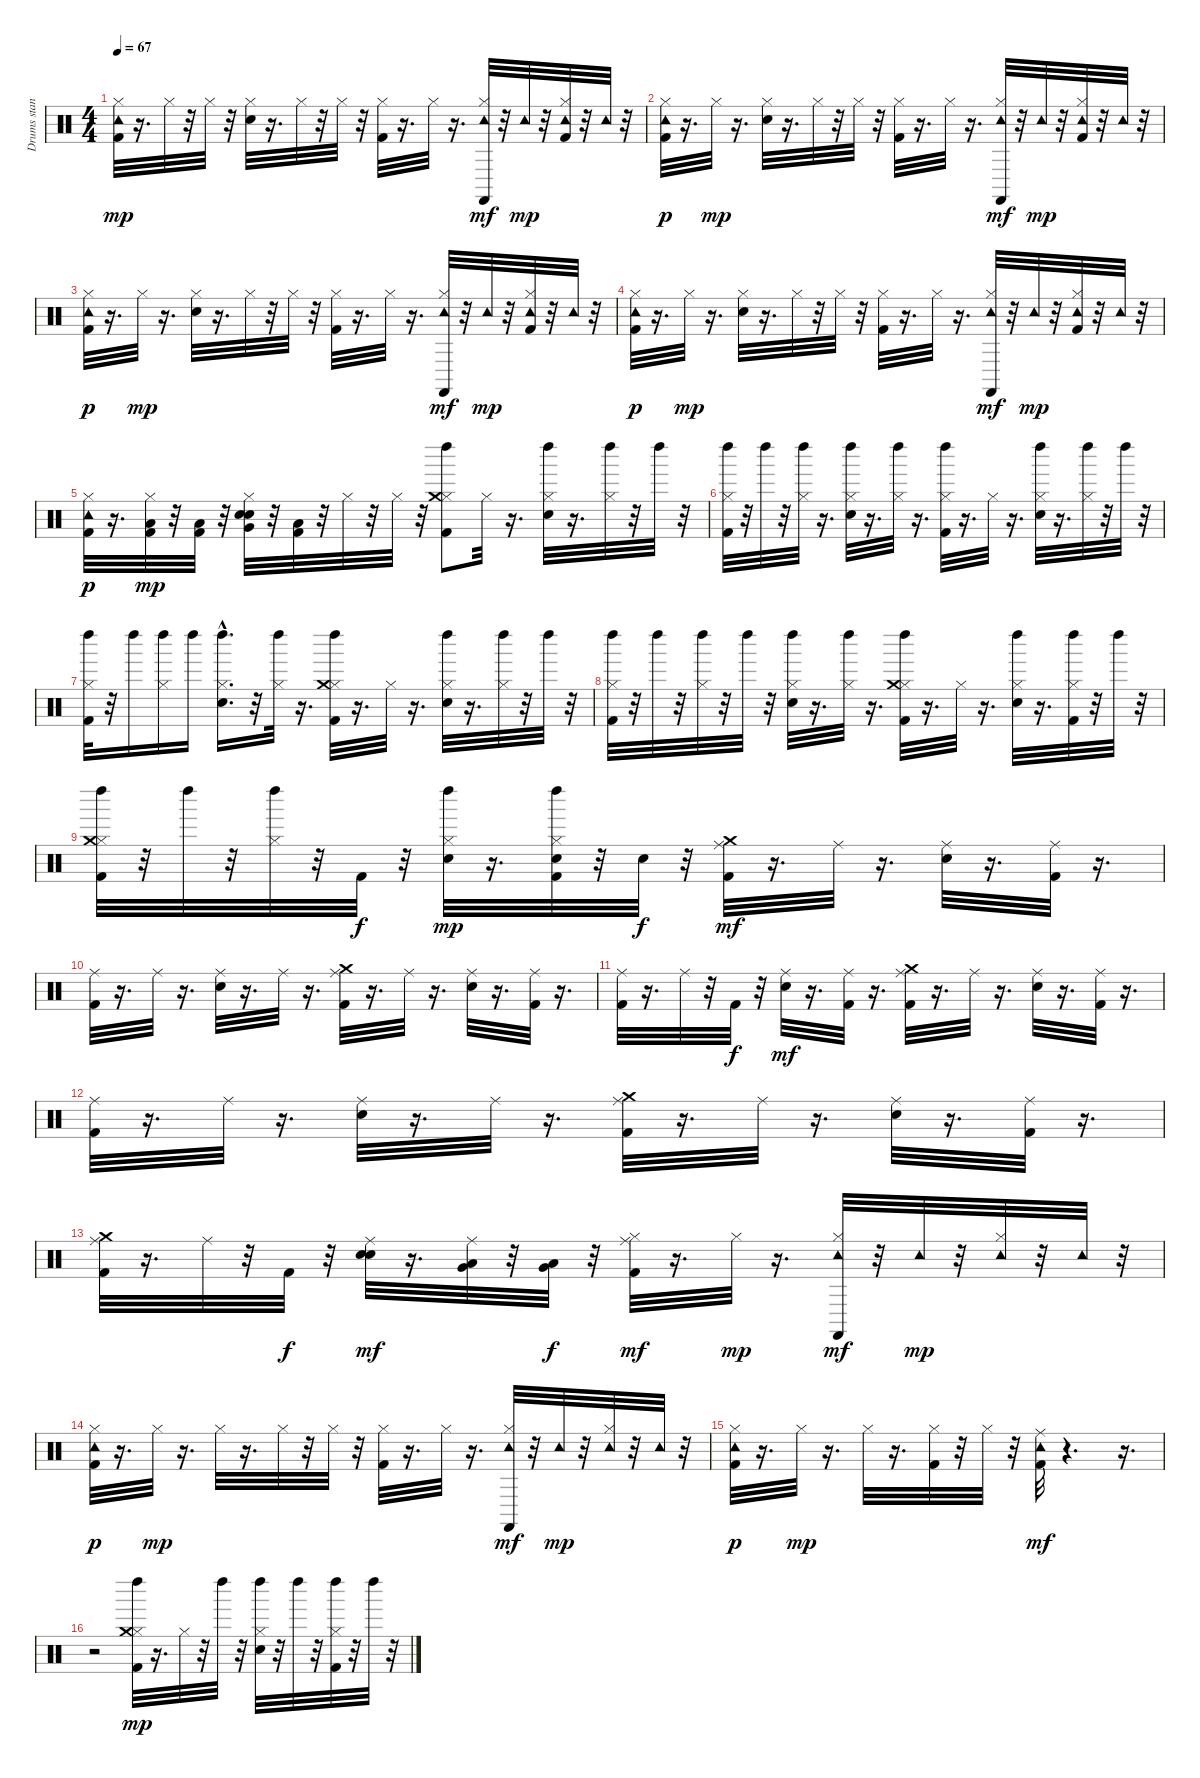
\track ("Drums stand. 1 ard" "Drums stan") {instrument percussion}
\staff {score}
\articulation defaults
\ts (4 4)
\tempo 67
\clef neutral
\ks c
("Kick (hit) 2" "Tambourine (hit)" "Hi-Hat (closed)").32{dy mp} r.16{d} "Hi-Hat (closed)".32 r.32 "Hi-Hat (closed)".32 r.32 ("Electric Snare (hit)" "Hi-Hat (closed)").32 r.16{d} "Hi-Hat (closed)".32 r.32 "Hi-Hat (closed)".32 r.32 ("Kick (hit) 2" "Hi-Hat (closed)").32 r.16{d} "Hi-Hat (closed)".32 r.16{d} ("Hi-Hat (closed)" "Tambourine (hit)" "Castanets (hit)").32{dy mf} r.32 "Tambourine (hit)".32{dy mp} r.32 ("Kick (hit) 2" "Hi-Hat (closed)" "Tambourine (hit)").32 r.32 "Tambourine (hit)".32 r.32 |
("Kick (hit) 2" "Hi-Hat (closed)" "Tambourine (hit)").32{dy p} r.16{d} "Hi-Hat (closed)".32{dy mp} r.16{d} ("Electric Snare (hit)" "Hi-Hat (closed)").32 r.16{d} "Hi-Hat (closed)".32 r.32 "Hi-Hat (closed)".32 r.32 ("Kick (hit) 2" "Hi-Hat (closed)").32 r.16{d} "Hi-Hat (closed)".32 r.16{d} ("Hi-Hat (closed)" "Tambourine (hit)" "Castanets (hit)").32{dy mf} r.32 "Tambourine (hit)".32{dy mp} r.32 ("Kick (hit) 2" "Hi-Hat (closed)" "Tambourine (hit)").32 r.32 "Tambourine (hit)".32 r.32 |
("Kick (hit) 2" "Hi-Hat (closed)" "Tambourine (hit)").32{dy p} r.16{d} "Hi-Hat (closed)".32{dy mp} r.16{d} ("Electric Snare (hit)" "Hi-Hat (closed)").32 r.16{d} "Hi-Hat (closed)".32 r.32 "Hi-Hat (closed)".32 r.32 ("Kick (hit) 2" "Hi-Hat (closed)").32 r.16{d} "Hi-Hat (closed)".32 r.16{d} ("Hi-Hat (closed)" "Tambourine (hit)" "Castanets (hit)").32{dy mf} r.32 "Tambourine (hit)".32{dy mp} r.32 ("Kick (hit) 2" "Hi-Hat (closed)" "Tambourine (hit)").32 r.32 "Tambourine (hit)".32 r.32 |
("Kick (hit) 2" "Hi-Hat (closed)" "Tambourine (hit)").32{dy p} r.16{d} "Hi-Hat (closed)".32{dy mp} r.16{d} ("Electric Snare (hit)" "Hi-Hat (closed)").32 r.16{d} "Hi-Hat (closed)".32 r.32 "Hi-Hat (closed)".32 r.32 ("Kick (hit) 2" "Hi-Hat (closed)").32 r.16{d} "Hi-Hat (closed)".32 r.16{d} ("Hi-Hat (closed)" "Tambourine (hit)" "Castanets (hit)").32{dy mf} r.32 "Tambourine (hit)".32{dy mp} r.32 ("Kick (hit) 2" "Hi-Hat (closed)" "Tambourine (hit)").32 r.32 "Tambourine (hit)".32 r.32 |
("Kick (hit) 2" "Hi-Hat (closed)" "Tambourine (hit)").32{dy p} r.16{d} ("Hi-Hat (closed)" "Kick (hit) 2" "Low Floor Tom (hit)").32{dy mp} r.32 ("Kick (hit) 2" "Low Floor Tom (hit)").32 r.32 ("Electric Snare (hit)" "Electric Snare (hit)" "Hi-Hat (closed)" "Very Low Tom (hit)").32 r.32 ("Kick (hit) 2" "Low Floor Tom (hit)").32 r.32 "Hi-Hat (closed)".32 r.32 "Hi-Hat (closed)".32 r.32 ("Hi-Hat (closed)" "Kick (hit) 2" "Crash medium (hit)" "Left Maraca (hit)").8 "Hi-Hat (closed)".32 r.16{d} ("Hi-Hat (closed)" "Electric Snare (hit)" "Left Maraca (hit)").32 r.16{d} ("Hi-Hat (closed)" "Left Maraca (hit)").32 r.32 "Left Maraca (hit)".32 r.32 |
("Hi-Hat (closed)" "Kick (hit) 2" "Left Maraca (hit)").32 r.32 "Left Maraca (hit)".32 r.32 ("Hi-Hat (closed)" "Left Maraca (hit)").32 r.16{d} ("Hi-Hat (closed)" "Electric Snare (hit)" "Left Maraca (hit)").32 r.16{d} ("Hi-Hat (closed)" "Left Maraca (hit)").32 r.16{d} ("Hi-Hat (closed)" "Kick (hit) 2" "Left Maraca (hit)").32 r.16{d} "Hi-Hat (closed)".32 r.16{d} ("Hi-Hat (closed)" "Electric Snare (hit)" "Left Maraca (hit)").32 r.16{d} ("Hi-Hat (closed)" "Left Maraca (hit)").32 r.32 "Left Maraca (hit)".32 r.32 |
("Hi-Hat (closed)" "Kick (hit) 2" "Left Maraca (hit)").32 r.32 "Left Maraca (hit)".16 ("Hi-Hat (closed)" "Left Maraca (hit)").16 "Left Maraca (hit)".16 ("Hi-Hat (closed)" "Electric Snare (hit)" "Left Maraca (hit)"{hac}).16{d} r.32 ("Hi-Hat (closed)" "Left Maraca (hit)").32 r.16{d} ("Hi-Hat (closed)" "Kick (hit) 2" "Crash medium (hit)" "Left Maraca (hit)").32 r.16{d} "Hi-Hat (closed)".32 r.16{d} ("Hi-Hat (closed)" "Electric Snare (hit)" "Left Maraca (hit)").32 r.16{d} ("Hi-Hat (closed)" "Left Maraca (hit)").32 r.32 "Left Maraca (hit)".32 r.32 |
("Hi-Hat (closed)" "Kick (hit) 2" "Left Maraca (hit)").32 r.32 "Left Maraca (hit)".32 r.32 ("Hi-Hat (closed)" "Left Maraca (hit)").32 r.32 "Left Maraca (hit)".32 r.32 ("Hi-Hat (closed)" "Electric Snare (hit)" "Left Maraca (hit)").32 r.16{d} ("Hi-Hat (closed)" "Left Maraca (hit)").32 r.16{d} ("Hi-Hat (closed)" "Kick (hit) 2" "Crash medium (hit)" "Left Maraca (hit)").32 r.16{d} "Hi-Hat (closed)".32 r.16{d} ("Hi-Hat (closed)" "Electric Snare (hit)" "Left Maraca (hit)").32 r.16{d} ("Hi-Hat (closed)" "Kick (hit) 2" "Left Maraca (hit)").32 r.32 "Left Maraca (hit)".32 r.32 |
("Hi-Hat (closed)" "Kick (hit) 2" "Crash medium (hit)" "Left Maraca (hit)").32 r.32 "Left Maraca (hit)".32 r.32 ("Hi-Hat (closed)" "Left Maraca (hit)").32 r.32 "Kick (hit) 2".32{dy f} r.32 ("Hi-Hat (closed)" "Electric Snare (hit)" "Left Maraca (hit)").32{dy mp} r.16{d} ("Hi-Hat (closed)" "Kick (hit) 2" "Electric Snare (hit)" "Left Maraca (hit)").32 r.32 "Electric Snare (hit)".32{dy f} r.32 ("Kick (hit) 2" "Ride (middle)" "Crash medium (hit)").32{dy mf} r.16{d} "Ride (middle)".32 r.16{d} ("Electric Snare (hit)" "Ride (middle)").32 r.16{d} ("Kick (hit) 2" "Ride (middle)").32 r.16{d} |
("Kick (hit) 2" "Ride (middle)").32 r.16{d} "Ride (middle)".32 r.16{d} ("Electric Snare (hit)" "Ride (middle)").32 r.16{d} "Ride (middle)".32 r.16{d} ("Kick (hit) 2" "Ride (middle)" "Crash medium (hit)").32 r.16{d} "Ride (middle)".32 r.16{d} ("Electric Snare (hit)" "Ride (middle)").32 r.16{d} ("Kick (hit) 2" "Ride (middle)").32 r.16{d} |
("Kick (hit) 2" "Ride (middle)").32 r.16{d} "Ride (middle)".32 r.32 "Kick (hit) 2".32{dy f} r.32 ("Electric Snare (hit)" "Ride (middle)").32{dy mf} r.16{d} ("Kick (hit) 2" "Ride (middle)").32 r.16{d} ("Kick (hit) 2" "Ride (middle)" "Crash medium (hit)").32 r.16{d} "Ride (middle)".32 r.16{d} ("Electric Snare (hit)" "Ride (middle)").32 r.16{d} ("Kick (hit) 2" "Ride (middle)").32 r.16{d} |
("Kick (hit) 2" "Ride (middle)").32 r.16{d} "Ride (middle)".32 r.16{d} ("Electric Snare (hit)" "Ride (middle)").32 r.16{d} "Ride (middle)".32 r.16{d} ("Kick (hit) 2" "Ride (middle)" "Crash medium (hit)").32 r.16{d} "Ride (middle)".32 r.16{d} ("Electric Snare (hit)" "Ride (middle)").32 r.16{d} ("Kick (hit) 2" "Ride (middle)").32 r.16{d} |
("Kick (hit) 2" "Ride (middle)" "Crash medium (hit)").32 r.16{d} "Ride (middle)".32 r.32 "Kick (hit) 2".32{dy f} r.32 ("Electric Snare (hit)" "Electric Snare (hit)" "Ride (middle)").32{dy mf} r.16{d} ("Ride (middle)" "Low Floor Tom (hit)" "Very Low Tom (hit)").32 r.32 ("Low Floor Tom (hit)" "Very Low Tom (hit)").32{dy f} r.32 ("Kick (hit) 2" "Hi-Hat (closed)" "Ride (middle)").32{dy mf} r.16{d} "Hi-Hat (closed)".32{dy mp} r.16{d} ("Castanets (hit)" "Hi-Hat (closed)" "Tambourine (hit)").32{dy mf} r.32 "Tambourine (hit)".32{dy mp} r.32 ("Hi-Hat (closed)" "Tambourine (hit)").32 r.32 "Tambourine (hit)".32 r.32 |
("Kick (hit) 2" "Hi-Hat (closed)" "Tambourine (hit)").32{dy p} r.16{d} "Hi-Hat (closed)".32{dy mp} r.16{d} "Hi-Hat (closed)".32 r.16{d} "Hi-Hat (closed)".32 r.32 "Hi-Hat (closed)".32 r.32 ("Kick (hit) 2" "Hi-Hat (closed)").32 r.16{d} "Hi-Hat (closed)".32 r.16{d} ("Castanets (hit)" "Hi-Hat (closed)" "Tambourine (hit)").32{dy mf} r.32 "Tambourine (hit)".32{dy mp} r.32 ("Hi-Hat (closed)" "Tambourine (hit)").32 r.32 "Tambourine (hit)".32 r.32 |
("Kick (hit) 2" "Hi-Hat (closed)" "Tambourine (hit)").32{dy p} r.16{d} "Hi-Hat (closed)".32{dy mp} r.16{d} "Hi-Hat (closed)".32 r.16{d} ("Hi-Hat (closed)" "Kick (hit) 2").32 r.32 "Hi-Hat (closed)".32 r.32 ("Kick (hit) 2" "Ride (middle)" "Tambourine (hit)").32{dy mf} r.4{d} r.16{d} |
r.2 ("Kick (hit) 2" "Hi-Hat (closed)" "Crash medium (hit)" "Left Maraca (hit)").32{dy mp} r.16{d} "Hi-Hat (closed)".32 r.32 "Left Maraca (hit)".32 r.32 ("Electric Snare (hit)" "Hi-Hat (closed)" "Left Maraca (hit)").32 r.32 "Left Maraca (hit)".32 r.32 ("Kick (hit) 2" "Hi-Hat (closed)" "Left Maraca (hit)").32 r.32 "Left Maraca (hit)".32 r.32
